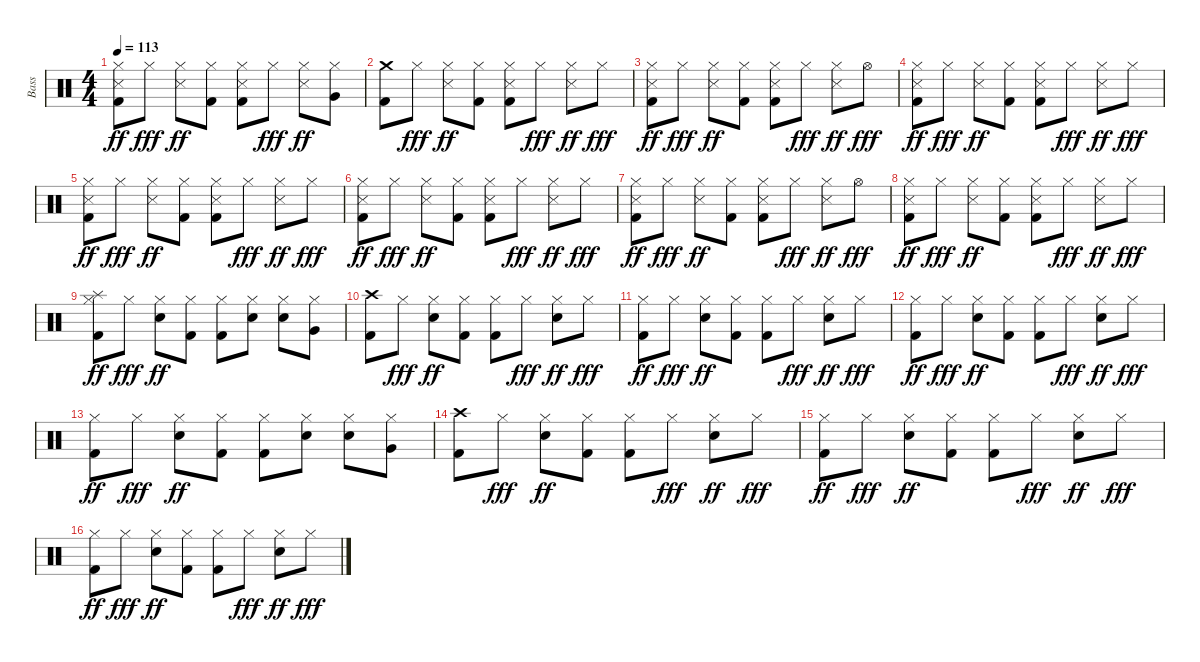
\track (" Bass" " Bass") {instrument percussion}
\staff {score}
\articulation defaults
\ts (4 4)
\tempo 113
\clef neutral
\ks c
("Hi-Hat (closed)" "Snare (side stick) 3" "Kick (hit) 2").8{dy ff} "Hi-Hat (closed)".8{dy fff} ("Hi-Hat (closed)" "Snare (side stick) 3").8{dy ff} ("Hi-Hat (closed)" "Kick (hit) 2").8 ("Hi-Hat (closed)" "Kick (hit) 2" "Snare (side stick) 3").8 "Hi-Hat (closed)".8{dy fff} ("Hi-Hat (closed)" "Snare (side stick) 3").8{dy ff} ("Hi-Hat (closed)" "Very Low Tom (hit)").8 |
("Crash medium (hit)" "Kick (hit) 2").8 "Hi-Hat (closed)".8{dy fff} ("Hi-Hat (closed)" "Snare (side stick) 3").8{dy ff} ("Hi-Hat (closed)" "Kick (hit) 2").8 ("Hi-Hat (closed)" "Snare (side stick) 3" "Kick (hit) 2").8 "Hi-Hat (closed)".8{dy fff} ("Hi-Hat (closed)" "Snare (side stick) 3").8{dy ff} "Hi-Hat (closed)".8{dy fff} |
("Hi-Hat (closed)" "Snare (side stick) 3" "Kick (hit) 2").8{dy ff} "Hi-Hat (closed)".8{dy fff} ("Hi-Hat (closed)" "Snare (side stick) 3").8{dy ff} ("Hi-Hat (closed)" "Kick (hit) 2").8 ("Hi-Hat (closed)" "Kick (hit) 2" "Snare (side stick) 3").8 "Hi-Hat (closed)".8{dy fff} ("Hi-Hat (closed)" "Snare (side stick) 3").8{dy ff} "Hi-Hat (open)".8{dy fff} |
("Hi-Hat (closed)" "Kick (hit) 2" "Snare (side stick) 3").8{dy ff} "Hi-Hat (closed)".8{dy fff} ("Hi-Hat (closed)" "Snare (side stick) 3").8{dy ff} ("Hi-Hat (closed)" "Kick (hit) 2").8 ("Hi-Hat (closed)" "Kick (hit) 2" "Snare (side stick) 3").8 "Hi-Hat (closed)".8{dy fff} ("Hi-Hat (closed)" "Snare (side stick) 3").8{dy ff} "Hi-Hat (closed)".8{dy fff} |
("Hi-Hat (closed)" "Kick (hit) 2" "Snare (side stick) 3").8{dy ff} "Hi-Hat (closed)".8{dy fff} ("Hi-Hat (closed)" "Snare (side stick) 3").8{dy ff} ("Hi-Hat (closed)" "Kick (hit) 2").8 ("Hi-Hat (closed)" "Snare (side stick) 3" "Kick (hit) 2").8 "Hi-Hat (closed)".8{dy fff} ("Hi-Hat (closed)" "Snare (side stick) 3").8{dy ff} "Hi-Hat (closed)".8{dy fff} |
("Hi-Hat (closed)" "Kick (hit) 2" "Snare (side stick) 3").8{dy ff} "Hi-Hat (closed)".8{dy fff} ("Hi-Hat (closed)" "Snare (side stick) 3").8{dy ff} ("Hi-Hat (closed)" "Kick (hit) 2").8 ("Hi-Hat (closed)" "Snare (side stick) 3" "Kick (hit) 2").8 "Hi-Hat (closed)".8{dy fff} ("Hi-Hat (closed)" "Snare (side stick) 3").8{dy ff} "Hi-Hat (closed)".8{dy fff} |
("Hi-Hat (closed)" "Kick (hit) 2" "Snare (side stick) 3").8{dy ff} "Hi-Hat (closed)".8{dy fff} ("Hi-Hat (closed)" "Snare (side stick) 3").8{dy ff} ("Hi-Hat (closed)" "Kick (hit) 2").8 ("Hi-Hat (closed)" "Kick (hit) 2" "Snare (side stick) 3").8 "Hi-Hat (closed)".8{dy fff} ("Hi-Hat (closed)" "Snare (side stick) 3").8{dy ff} "Hi-Hat (open)".8{dy fff} |
("Hi-Hat (closed)" "Kick (hit) 2" "Snare (side stick) 3").8{dy ff} "Hi-Hat (closed)".8{dy fff} ("Hi-Hat (closed)" "Snare (side stick) 3").8{dy ff} ("Hi-Hat (closed)" "Kick (hit) 2").8 ("Hi-Hat (closed)" "Kick (hit) 2" "Snare (side stick) 3").8 "Hi-Hat (closed)".8{dy fff} ("Hi-Hat (closed)" "Snare (side stick) 3").8{dy ff} "Hi-Hat (closed)".8{dy fff} |
("Splash (hit)" "Hi-Hat (closed)" "Kick (hit) 2").8{dy ff} "Hi-Hat (closed)".8{dy fff} ("Hi-Hat (closed)" "Snare (hit) 2").8{dy ff} ("Hi-Hat (closed)" "Kick (hit) 2").8 ("Hi-Hat (closed)" "Kick (hit) 2").8 ("Hi-Hat (closed)" "Snare (hit) 2").8 ("Hi-Hat (closed)" "Snare (hit) 2").8 ("Hi-Hat (closed)" "Very Low Tom (hit)").8 |
("Crash high (hit)" "Kick (hit) 2").8 "Hi-Hat (closed)".8{dy fff} ("Hi-Hat (closed)" "Snare (hit) 2").8{dy ff} ("Hi-Hat (closed)" "Kick (hit) 2").8 ("Hi-Hat (closed)" "Kick (hit) 2").8 "Hi-Hat (closed)".8{dy fff} ("Hi-Hat (closed)" "Snare (hit) 2").8{dy ff} "Hi-Hat (closed)".8{dy fff} |
("Hi-Hat (closed)" "Kick (hit) 2").8{dy ff} "Hi-Hat (closed)".8{dy fff} ("Hi-Hat (closed)" "Snare (hit) 2").8{dy ff} ("Hi-Hat (closed)" "Kick (hit) 2").8 ("Hi-Hat (closed)" "Kick (hit) 2").8 "Hi-Hat (closed)".8{dy fff} ("Hi-Hat (closed)" "Snare (hit) 2").8{dy ff} "Hi-Hat (closed)".8{dy fff} |
("Hi-Hat (closed)" "Kick (hit) 2").8{dy ff} "Hi-Hat (closed)".8{dy fff} ("Hi-Hat (closed)" "Snare (hit) 2").8{dy ff} ("Hi-Hat (closed)" "Kick (hit) 2").8 ("Hi-Hat (closed)" "Kick (hit) 2").8 "Hi-Hat (closed)".8{dy fff} ("Hi-Hat (closed)" "Snare (hit) 2").8{dy ff} "Hi-Hat (closed)".8{dy fff} |
("Hi-Hat (closed)" "Kick (hit) 2").8{dy ff} "Hi-Hat (closed)".8{dy fff} ("Hi-Hat (closed)" "Snare (hit) 2").8{dy ff} ("Hi-Hat (closed)" "Kick (hit) 2").8 ("Hi-Hat (closed)" "Kick (hit) 2").8 ("Hi-Hat (closed)" "Snare (hit) 2").8 ("Hi-Hat (closed)" "Snare (hit) 2").8 ("Hi-Hat (closed)" "Very Low Tom (hit)").8 |
("Crash high (hit)" "Kick (hit) 2").8 "Hi-Hat (closed)".8{dy fff} ("Hi-Hat (closed)" "Snare (hit) 2").8{dy ff} ("Hi-Hat (closed)" "Kick (hit) 2").8 ("Hi-Hat (closed)" "Kick (hit) 2").8 "Hi-Hat (closed)".8{dy fff} ("Hi-Hat (closed)" "Snare (hit) 2").8{dy ff} "Hi-Hat (closed)".8{dy fff} |
("Hi-Hat (closed)" "Kick (hit) 2").8{dy ff} "Hi-Hat (closed)".8{dy fff} ("Hi-Hat (closed)" "Snare (hit) 2").8{dy ff} ("Hi-Hat (closed)" "Kick (hit) 2").8 ("Hi-Hat (closed)" "Kick (hit) 2").8 "Hi-Hat (closed)".8{dy fff} ("Hi-Hat (closed)" "Snare (hit) 2").8{dy ff} "Hi-Hat (closed)".8{dy fff} |
("Hi-Hat (closed)" "Kick (hit) 2").8{dy ff} "Hi-Hat (closed)".8{dy fff} ("Hi-Hat (closed)" "Snare (hit) 2").8{dy ff} ("Hi-Hat (closed)" "Kick (hit) 2").8 ("Hi-Hat (closed)" "Kick (hit) 2").8 "Hi-Hat (closed)".8{dy fff} ("Hi-Hat (closed)" "Snare (hit) 2").8{dy ff} "Hi-Hat (closed)".8{dy fff}
